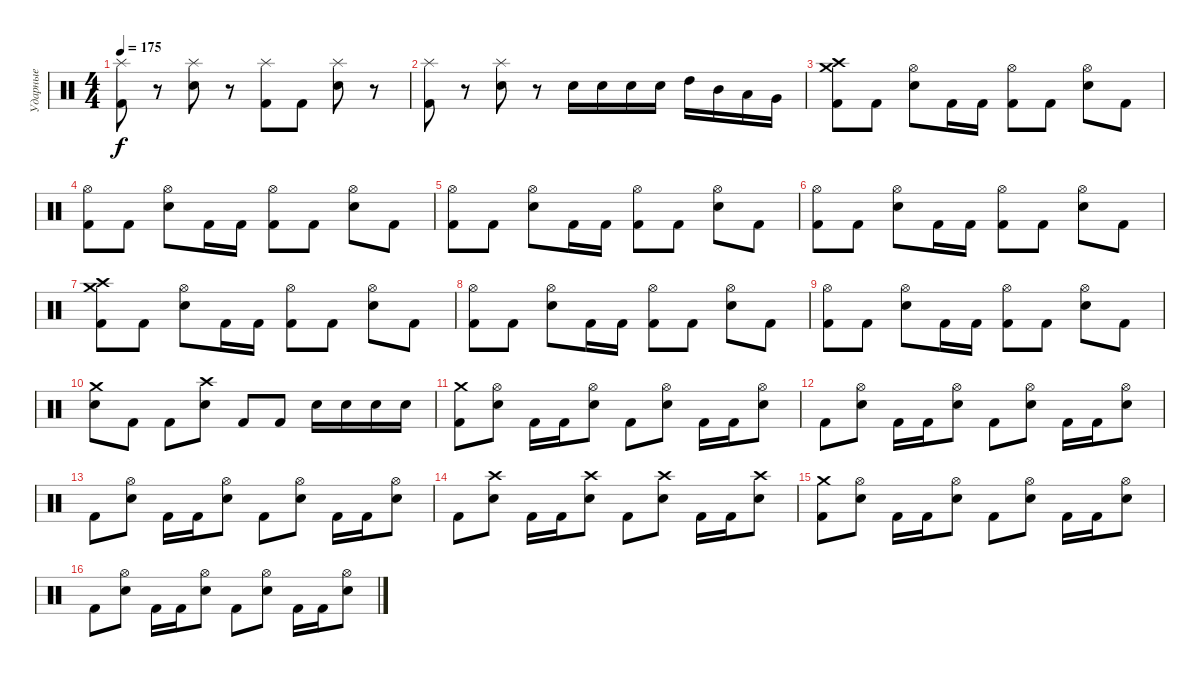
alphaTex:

\track ("Ударные" "Ударные") {instrument percussion}
\staff {score}
\articulation defaults
\ts (4 4)
\tempo 175
\clef neutral
\ks c
("Splash (hit)" "Kick (hit) 2").8{dy f} r.8 ("Splash (hit)" "Electric Snare (hit)").8 r.8 ("Splash (hit)" "Kick (hit) 2").8 "Kick (hit) 2".8 ("Splash (hit)" "Electric Snare (hit)").8 r.8 |
("Splash (hit)" "Kick (hit) 2").8 r.8 ("Splash (hit)" "Electric Snare (hit)").8 r.8 "Electric Snare (hit)".16 "Electric Snare (hit)".16 "Electric Snare (hit)".16 "Electric Snare (hit)".16 "High Tom (hit)".16 "Mid Tom (hit)".16 "Low Tom (hit)".16 "Very Low Tom (hit)".16 |
("Crash medium (hit)" "Crash high (hit)" "Kick (hit) 2").8 "Kick (hit) 2".8 ("Hi-Hat (open)" "Electric Snare (hit)").8 "Kick (hit) 2".16 "Kick (hit) 2".16 ("Hi-Hat (open)" "Kick (hit) 2").8 "Kick (hit) 2".8 ("Hi-Hat (open)" "Electric Snare (hit)").8 "Kick (hit) 2".8 |
("Hi-Hat (open)" "Kick (hit) 2").8 "Kick (hit) 2".8 ("Hi-Hat (open)" "Electric Snare (hit)").8 "Kick (hit) 2".16 "Kick (hit) 2".16 ("Hi-Hat (open)" "Kick (hit) 2").8 "Kick (hit) 2".8 ("Hi-Hat (open)" "Electric Snare (hit)").8 "Kick (hit) 2".8 |
("Hi-Hat (open)" "Kick (hit) 2").8 "Kick (hit) 2".8 ("Hi-Hat (open)" "Electric Snare (hit)").8 "Kick (hit) 2".16 "Kick (hit) 2".16 ("Hi-Hat (open)" "Kick (hit) 2").8 "Kick (hit) 2".8 ("Hi-Hat (open)" "Electric Snare (hit)").8 "Kick (hit) 2".8 |
("Hi-Hat (open)" "Kick (hit) 2").8 "Kick (hit) 2".8 ("Hi-Hat (open)" "Electric Snare (hit)").8 "Kick (hit) 2".16 "Kick (hit) 2".16 ("Hi-Hat (open)" "Kick (hit) 2").8 "Kick (hit) 2".8 ("Hi-Hat (open)" "Electric Snare (hit)").8 "Kick (hit) 2".8 |
("Crash medium (hit)" "Crash high (hit)" "Kick (hit) 2").8 "Kick (hit) 2".8 ("Hi-Hat (open)" "Electric Snare (hit)").8 "Kick (hit) 2".16 "Kick (hit) 2".16 ("Hi-Hat (open)" "Kick (hit) 2").8 "Kick (hit) 2".8 ("Hi-Hat (open)" "Electric Snare (hit)").8 "Kick (hit) 2".8 |
("Hi-Hat (open)" "Kick (hit) 2").8 "Kick (hit) 2".8 ("Hi-Hat (open)" "Electric Snare (hit)").8 "Kick (hit) 2".16 "Kick (hit) 2".16 ("Hi-Hat (open)" "Kick (hit) 2").8 "Kick (hit) 2".8 ("Hi-Hat (open)" "Electric Snare (hit)").8 "Kick (hit) 2".8 |
("Hi-Hat (open)" "Kick (hit) 2").8 "Kick (hit) 2".8 ("Hi-Hat (open)" "Electric Snare (hit)").8 "Kick (hit) 2".16 "Kick (hit) 2".16 ("Hi-Hat (open)" "Kick (hit) 2").8 "Kick (hit) 2".8 ("Hi-Hat (open)" "Electric Snare (hit)").8 "Kick (hit) 2".8 |
("Crash medium (hit)" "Electric Snare (hit)").8 "Kick (hit) 2".8 "Kick (hit) 2".8 ("Crash high (hit)" "Electric Snare (hit)").8 "Kick (hit) 2".8 "Kick (hit) 2".8 "Electric Snare (hit)".16 "Electric Snare (hit)".16 "Electric Snare (hit)".16 "Electric Snare (hit)".16 |
("Crash medium (hit)" "Kick (hit) 2").8 ("Hi-Hat (open)" "Electric Snare (hit)").8 "Kick (hit) 2".16 "Kick (hit) 2".16 ("Hi-Hat (open)" "Electric Snare (hit)").8 "Kick (hit) 2".8 ("Hi-Hat (open)" "Electric Snare (hit)").8 "Kick (hit) 2".16 "Kick (hit) 2".16 ("Hi-Hat (open)" "Electric Snare (hit)").8 |
"Kick (hit) 2".8 ("Hi-Hat (open)" "Electric Snare (hit)").8 "Kick (hit) 2".16 "Kick (hit) 2".16 ("Hi-Hat (open)" "Electric Snare (hit)").8 "Kick (hit) 2".8 ("Hi-Hat (open)" "Electric Snare (hit)").8 "Kick (hit) 2".16 "Kick (hit) 2".16 ("Hi-Hat (open)" "Electric Snare (hit)").8 |
"Kick (hit) 2".8 ("Hi-Hat (open)" "Electric Snare (hit)").8 "Kick (hit) 2".16 "Kick (hit) 2".16 ("Hi-Hat (open)" "Electric Snare (hit)").8 "Kick (hit) 2".8 ("Hi-Hat (open)" "Electric Snare (hit)").8 "Kick (hit) 2".16 "Kick (hit) 2".16 ("Hi-Hat (open)" "Electric Snare (hit)").8 |
"Kick (hit) 2".8 ("Crash high (hit)" "Electric Snare (hit)").8 "Kick (hit) 2".16 "Kick (hit) 2".16 ("Crash high (hit)" "Electric Snare (hit)").8 "Kick (hit) 2".8 ("Crash high (hit)" "Electric Snare (hit)").8 "Kick (hit) 2".16 "Kick (hit) 2".16 ("Crash high (hit)" "Electric Snare (hit)").8 |
("Crash medium (hit)" "Kick (hit) 2").8 ("Hi-Hat (open)" "Electric Snare (hit)").8 "Kick (hit) 2".16 "Kick (hit) 2".16 ("Hi-Hat (open)" "Electric Snare (hit)").8 "Kick (hit) 2".8 ("Hi-Hat (open)" "Electric Snare (hit)").8 "Kick (hit) 2".16 "Kick (hit) 2".16 ("Hi-Hat (open)" "Electric Snare (hit)").8 |
"Kick (hit) 2".8 ("Hi-Hat (open)" "Electric Snare (hit)").8 "Kick (hit) 2".16 "Kick (hit) 2".16 ("Hi-Hat (open)" "Electric Snare (hit)").8 "Kick (hit) 2".8 ("Hi-Hat (open)" "Electric Snare (hit)").8 "Kick (hit) 2".16 "Kick (hit) 2".16 ("Hi-Hat (open)" "Electric Snare (hit)").8
